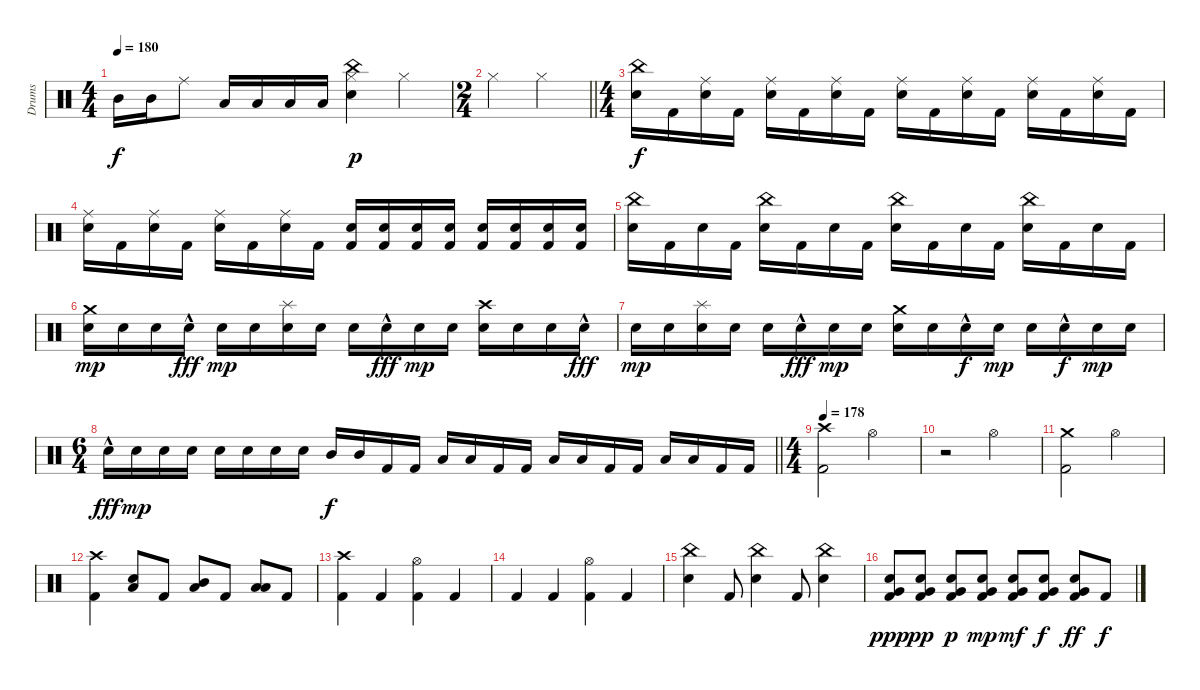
\track ("Drums" "Drums") {instrument percussion}
\staff {score}
\articulation defaults
\ts (4 4)
\tempo 180
\clef neutral
\ks c "Mid Tom (hit)".16{dy f} "Mid Tom (hit)".16 "Ride (middle)".8 "Low Tom (hit)".16 "Low Tom (hit)".16 "Low Tom (hit)".16 "Low Tom (hit)".16
("China (hit)" "Hi-Hat (closed)" "Electric Snare (hit)").4{dy p} "Hi-Hat (closed)".4 |
\ts (2 4)
\barLineRight lightlight "Hi-Hat (closed)".4 "Hi-Hat (closed)".4
|
\ts (4 4)
("China (hit)" "Electric Snare (hit)").16{dy f} "Kick (hit) 2".16 ("Ride (middle)" "Electric Snare (hit)").16 "Kick (hit) 2".16 ("Ride (middle)" "Electric Snare (hit)").16 "Kick (hit) 2".16 ("Ride (middle)" "Electric Snare (hit)").16 "Kick (hit) 2".16 ("Ride (middle)" "Electric Snare (hit)").16 "Kick (hit) 2".16 ("Ride (middle)" "Electric Snare (hit)").16 "Kick (hit) 2".16 ("Ride (middle)" "Electric Snare (hit)").16 "Kick (hit) 2".16 ("Ride (middle)" "Electric Snare (hit)").16 "Kick (hit) 2".16 |
("Ride (middle)" "Electric Snare (hit)").16 "Kick (hit) 2".16 ("Ride (middle)" "Electric Snare (hit)").16 "Kick (hit) 2".16 ("Ride (middle)" "Electric Snare (hit)").16 "Kick (hit) 2".16 ("Ride (middle)" "Electric Snare (hit)").16 "Kick (hit) 2".16 ("Electric Snare (hit)" "Kick (hit) 2").16 ("Electric Snare (hit)" "Kick (hit) 2").16 ("Electric Snare (hit)" "Kick (hit) 2").16 ("Electric Snare (hit)" "Kick (hit) 2").16 ("Electric Snare (hit)" "Kick (hit) 2").16 ("Electric Snare (hit)" "Kick (hit) 2").16 ("Electric Snare (hit)" "Kick (hit) 2").16 ("Electric Snare (hit)" "Kick (hit) 2").16 |
("China (hit)" "Electric Snare (hit)").16 "Kick (hit) 2".16 "Electric Snare (hit)".16 "Kick (hit) 2".16 ("China (hit)" "Electric Snare (hit)").16 "Kick (hit) 2".16 "Electric Snare (hit)".16 "Kick (hit) 2".16 ("China (hit)" "Electric Snare (hit)").16 "Kick (hit) 2".16 "Electric Snare (hit)".16 "Kick (hit) 2".16 ("China (hit)" "Electric Snare (hit)").16 "Kick (hit) 2".16 "Electric Snare (hit)".16 "Kick (hit) 2".16 |
("Crash medium (hit)" "Electric Snare (hit)").16{dy mp} "Electric Snare (hit)".16 "Electric Snare (hit)".16 "Electric Snare (hit)"{hac}.16{dy fff} "Electric Snare (hit)".16{dy mp} "Electric Snare (hit)".16 ("Splash (hit)" "Electric Snare (hit)").16 "Electric Snare (hit)".16 "Electric Snare (hit)".16 "Electric Snare (hit)"{hac}.16{dy fff} "Electric Snare (hit)".16{dy mp} "Electric Snare (hit)".16 ("Crash high (hit)" "Electric Snare (hit)").16 "Electric Snare (hit)".16 "Electric Snare (hit)".16 "Electric Snare (hit)"{hac}.16{dy fff} |
"Electric Snare (hit)".16{dy mp} "Electric Snare (hit)".16 ("Splash (hit)" "Electric Snare (hit)").16 "Electric Snare (hit)".16 "Electric Snare (hit)".16 "Electric Snare (hit)"{hac}.16{dy fff} "Electric Snare (hit)".16{dy mp} "Electric Snare (hit)".16 ("Crash medium (hit)" "Electric Snare (hit)").16 "Electric Snare (hit)".16 "Electric Snare (hit)"{hac}.16{dy f} "Electric Snare (hit)".16{dy mp} "Electric Snare (hit)".16 "Electric Snare (hit)"{hac}.16{dy f} "Electric Snare (hit)".16{dy mp} "Electric Snare (hit)".16 |
\ts (6 4)
\barLineRight lightlight "Electric Snare (hit)"{hac}.16{dy fff} "Electric Snare (hit)".16{dy mp} "Electric Snare (hit)".16 "Electric Snare (hit)".16 "Electric Snare (hit)".16 "Electric Snare (hit)".16 "Electric Snare (hit)".16 "Electric Snare (hit)".16 "Mid Tom (hit)".16{dy f} "Mid Tom (hit)".16 "Kick (hit) 2".16 "Kick (hit) 2".16 "Low Tom (hit)".16 "Low Tom (hit)".16 "Kick (hit) 2".16 "Kick (hit) 2".16 "Low Floor Tom (hit)".16 "Low Floor Tom (hit)".16 "Kick (hit) 2".16 "Kick (hit) 2".16 "Low Tom (hit)".16 "Low Tom (hit)".16 "Kick (hit) 2".16 "Kick (hit) 2".16
|
\ts (4 4)
\tempo 178
("Crash high (hit)" "Kick (hit) 2").2 "Hi-Hat (open)".2 |
r.2 "Hi-Hat (open)".2 |
("Crash medium (hit)" "Kick (hit) 2").2 "Hi-Hat (open)".2 |
("Crash high (hit)" "Kick (hit) 2").4 ("Low Floor Tom (hit)" "Electric Snare (hit)").8 "Kick (hit) 2".8 ("Mid Tom (hit)" "Low Tom (hit)").8 "Kick (hit) 2".8 ("Low Tom (hit)" "Low Floor Tom (hit)").8 "Kick (hit) 2".8 |
("Crash high (hit)" "Kick (hit) 2").4 "Kick (hit) 2".4 ("Hi-Hat (open)" "Kick (hit) 2").4 "Kick (hit) 2".4 |
"Kick (hit) 2".4 "Kick (hit) 2".4 ("Hi-Hat (open)" "Kick (hit) 2").4 "Kick (hit) 2".4 |
("China (hit)" "Electric Snare (hit)").4 "Kick (hit) 2".8 ("China (hit)" "Electric Snare (hit)").4 "Kick (hit) 2".8 ("China (hit)" "Electric Snare (hit)").4 |
("Very Low Tom (hit)" "Electric Snare (hit)" "Kick (hit) 2").8{dy ppp} ("Very Low Tom (hit)" "Electric Snare (hit)" "Kick (hit) 2").8{dy pp} ("Very Low Tom (hit)" "Electric Snare (hit)" "Kick (hit) 2").8{dy p} ("Very Low Tom (hit)" "Electric Snare (hit)" "Kick (hit) 2").8{dy mp} ("Very Low Tom (hit)" "Electric Snare (hit)" "Kick (hit) 2").8{dy mf} ("Very Low Tom (hit)" "Electric Snare (hit)" "Kick (hit) 2").8{dy f} ("Very Low Tom (hit)" "Electric Snare (hit)" "Kick (hit) 2").8{dy ff} "Kick (hit) 2".8{dy f}
